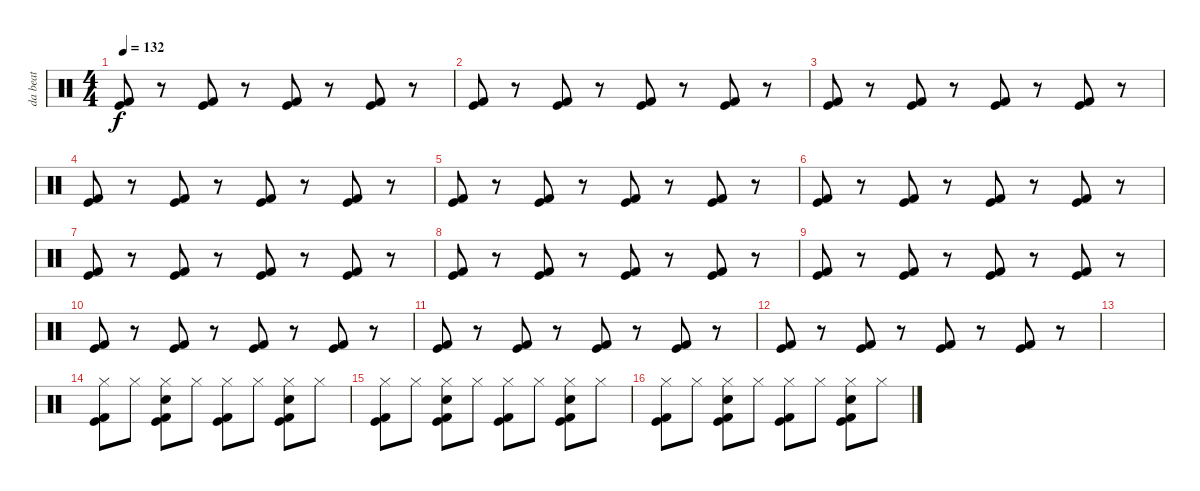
\track ("da beat" "da beat") {instrument percussion}
\staff {score}
\articulation defaults
\ts (4 4)
\tempo 132
\clef neutral
\ks c
("Kick (hit)" "Kick (hit) 2").8{dy f} r.8 ("Kick (hit)" "Kick (hit) 2").8 r.8 ("Kick (hit)" "Kick (hit) 2").8 r.8 ("Kick (hit)" "Kick (hit) 2").8 r.8 |
("Kick (hit)" "Kick (hit) 2").8 r.8 ("Kick (hit)" "Kick (hit) 2").8 r.8 ("Kick (hit)" "Kick (hit) 2").8 r.8 ("Kick (hit)" "Kick (hit) 2").8 r.8 |
("Kick (hit)" "Kick (hit) 2").8 r.8 ("Kick (hit)" "Kick (hit) 2").8 r.8 ("Kick (hit)" "Kick (hit) 2").8 r.8 ("Kick (hit)" "Kick (hit) 2").8 r.8 |
("Kick (hit)" "Kick (hit) 2").8 r.8 ("Kick (hit)" "Kick (hit) 2").8 r.8 ("Kick (hit)" "Kick (hit) 2").8 r.8 ("Kick (hit)" "Kick (hit) 2").8 r.8 |
("Kick (hit)" "Kick (hit) 2").8 r.8 ("Kick (hit)" "Kick (hit) 2").8 r.8 ("Kick (hit)" "Kick (hit) 2").8 r.8 ("Kick (hit)" "Kick (hit) 2").8 r.8 |
("Kick (hit)" "Kick (hit) 2").8 r.8 ("Kick (hit)" "Kick (hit) 2").8 r.8 ("Kick (hit)" "Kick (hit) 2").8 r.8 ("Kick (hit)" "Kick (hit) 2").8 r.8 |
("Kick (hit)" "Kick (hit) 2").8 r.8 ("Kick (hit)" "Kick (hit) 2").8 r.8 ("Kick (hit)" "Kick (hit) 2").8 r.8 ("Kick (hit)" "Kick (hit) 2").8 r.8 |
("Kick (hit)" "Kick (hit) 2").8 r.8 ("Kick (hit)" "Kick (hit) 2").8 r.8 ("Kick (hit)" "Kick (hit) 2").8 r.8 ("Kick (hit)" "Kick (hit) 2").8 r.8 |
("Kick (hit)" "Kick (hit) 2").8 r.8 ("Kick (hit)" "Kick (hit) 2").8 r.8 ("Kick (hit)" "Kick (hit) 2").8 r.8 ("Kick (hit)" "Kick (hit) 2").8 r.8 |
("Kick (hit)" "Kick (hit) 2").8 r.8 ("Kick (hit)" "Kick (hit) 2").8 r.8 ("Kick (hit)" "Kick (hit) 2").8 r.8 ("Kick (hit)" "Kick (hit) 2").8 r.8 |
("Kick (hit)" "Kick (hit) 2").8 r.8 ("Kick (hit)" "Kick (hit) 2").8 r.8 ("Kick (hit)" "Kick (hit) 2").8 r.8 ("Kick (hit)" "Kick (hit) 2").8 r.8 |
("Kick (hit)" "Kick (hit) 2").8 r.8 ("Kick (hit)" "Kick (hit) 2").8 r.8 ("Kick (hit)" "Kick (hit) 2").8 r.8 ("Kick (hit)" "Kick (hit) 2").8 r.8 |
|
("Hi-Hat (closed)" "Kick (hit)" "Kick (hit) 2").8 "Hi-Hat (closed)".8 ("Hi-Hat (closed)" "Electric Snare (hit)" "Kick (hit)" "Kick (hit) 2").8 "Hi-Hat (closed)".8 ("Hi-Hat (closed)" "Kick (hit)" "Kick (hit) 2").8 "Hi-Hat (closed)".8 ("Hi-Hat (closed)" "Electric Snare (hit)" "Kick (hit)" "Kick (hit) 2").8 "Hi-Hat (closed)".8 |
("Hi-Hat (closed)" "Kick (hit)" "Kick (hit) 2").8 "Hi-Hat (closed)".8 ("Hi-Hat (closed)" "Electric Snare (hit)" "Kick (hit)" "Kick (hit) 2").8 "Hi-Hat (closed)".8 ("Hi-Hat (closed)" "Kick (hit)" "Kick (hit) 2").8 "Hi-Hat (closed)".8 ("Hi-Hat (closed)" "Electric Snare (hit)" "Kick (hit)" "Kick (hit) 2").8 "Hi-Hat (closed)".8 |
("Hi-Hat (closed)" "Kick (hit)" "Kick (hit) 2").8 "Hi-Hat (closed)".8 ("Hi-Hat (closed)" "Electric Snare (hit)" "Kick (hit)" "Kick (hit) 2").8 "Hi-Hat (closed)".8 ("Hi-Hat (closed)" "Kick (hit)" "Kick (hit) 2").8 "Hi-Hat (closed)".8 ("Hi-Hat (closed)" "Electric Snare (hit)" "Kick (hit)" "Kick (hit) 2").8 "Hi-Hat (closed)".8
